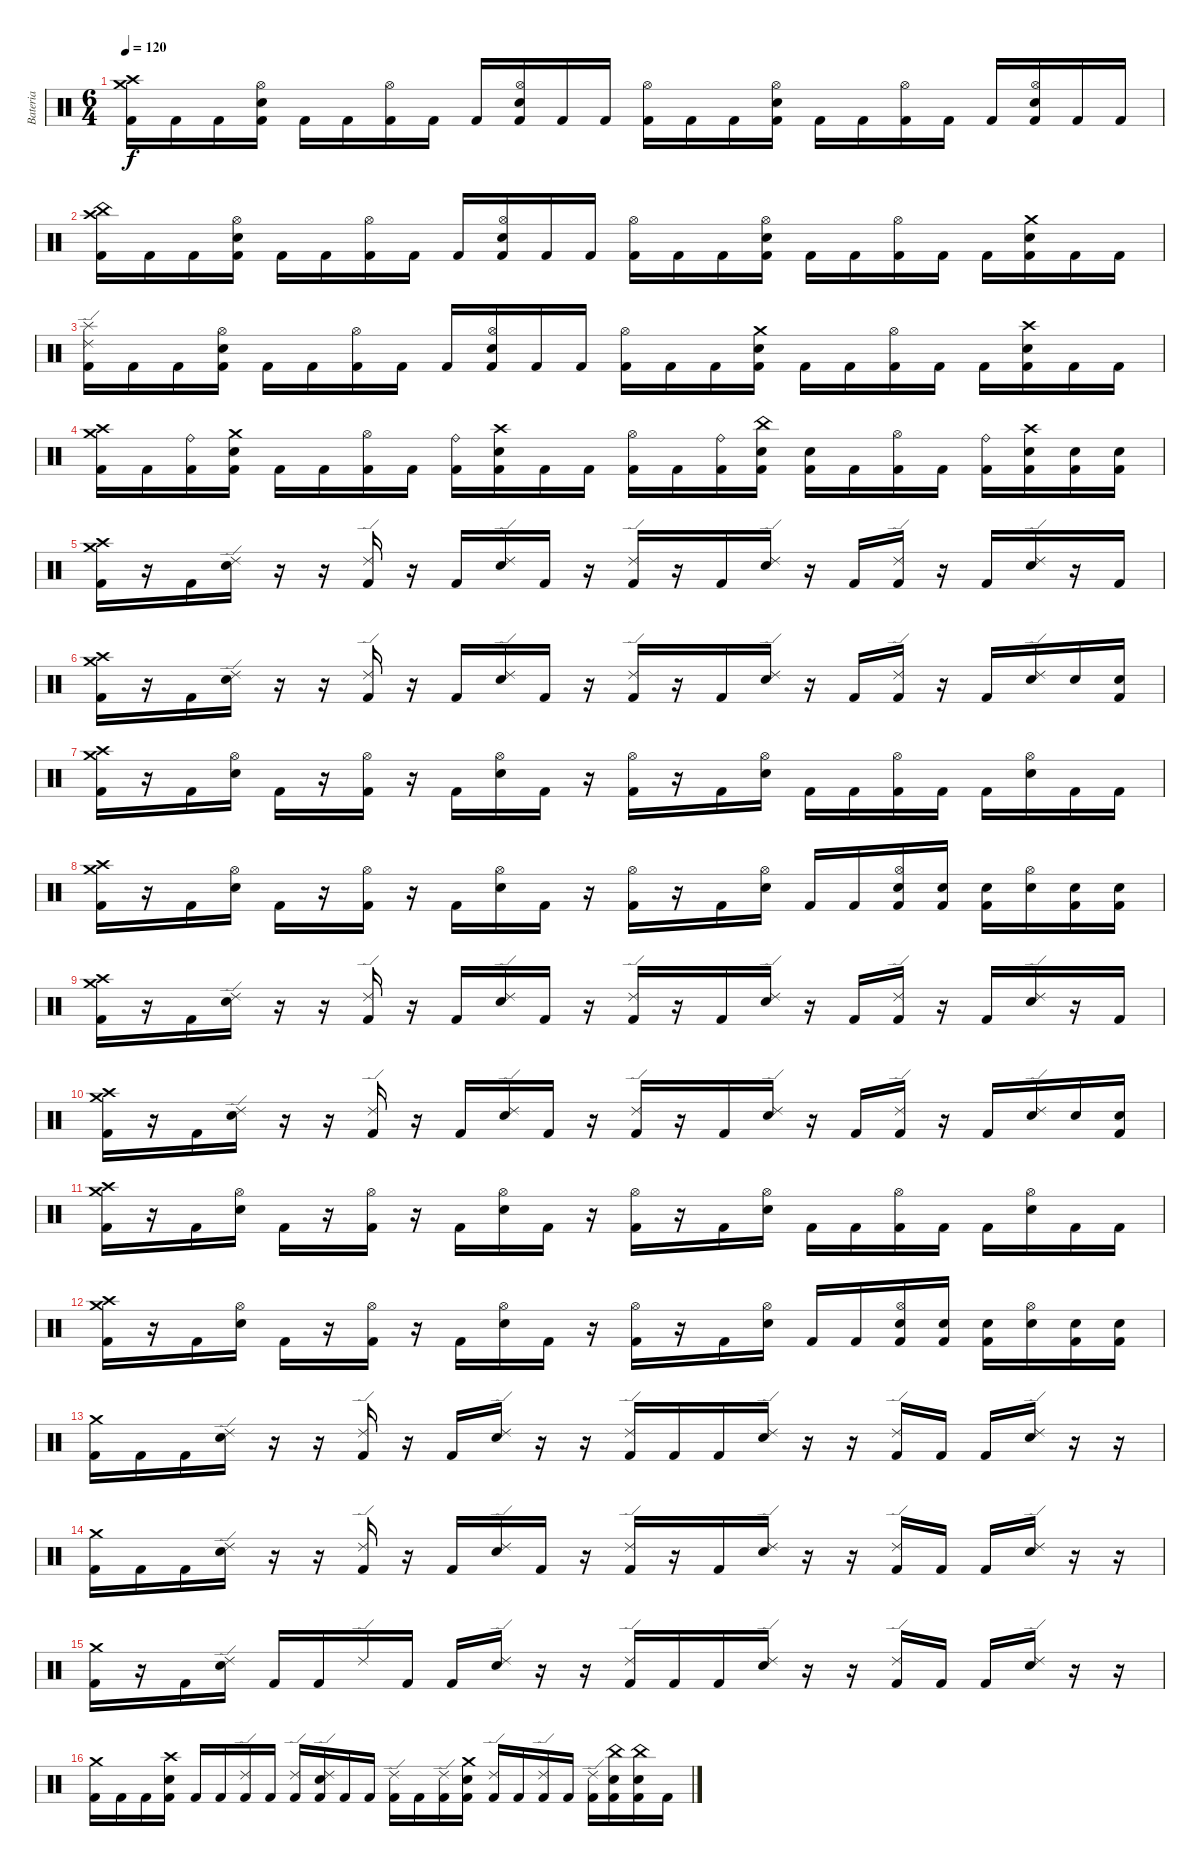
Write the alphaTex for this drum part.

\track ("Bateria" "Bateria") {instrument percussion}
\staff {score}
\articulation defaults
\ts (6 4)
\tempo 120
\clef neutral
\ks c
("Crash medium (hit)" "Crash high (hit)" "Kick (hit) 2").16{dy f} "Kick (hit) 2".16 "Kick (hit) 2".16 ("Hi-Hat (open)" "Electric Snare (hit)" "Kick (hit) 2").16 "Kick (hit) 2".16 "Kick (hit) 2".16 ("Hi-Hat (open)" "Kick (hit) 2").16 "Kick (hit) 2".16 "Kick (hit) 2".16 ("Hi-Hat (open)" "Electric Snare (hit)" "Kick (hit) 2").16 "Kick (hit) 2".16 "Kick (hit) 2".16 ("Hi-Hat (open)" "Kick (hit) 2").16 "Kick (hit) 2".16 "Kick (hit) 2".16 ("Hi-Hat (open)" "Electric Snare (hit)" "Kick (hit) 2").16 "Kick (hit) 2".16 "Kick (hit) 2".16 ("Hi-Hat (open)" "Kick (hit) 2").16 "Kick (hit) 2".16 "Kick (hit) 2".16 ("Hi-Hat (open)" "Electric Snare (hit)" "Kick (hit) 2").16 "Kick (hit) 2".16 "Kick (hit) 2".16 |
("China (hit)" "Crash high (hit)" "Kick (hit) 2").16 "Kick (hit) 2".16 "Kick (hit) 2".16 ("Hi-Hat (open)" "Electric Snare (hit)" "Kick (hit) 2").16 "Kick (hit) 2".16 "Kick (hit) 2".16 ("Hi-Hat (open)" "Kick (hit) 2").16 "Kick (hit) 2".16 "Kick (hit) 2".16 ("Hi-Hat (open)" "Electric Snare (hit)" "Kick (hit) 2").16 "Kick (hit) 2".16 "Kick (hit) 2".16 ("Hi-Hat (open)" "Kick (hit) 2").16 "Kick (hit) 2".16 "Kick (hit) 2".16 ("Hi-Hat (open)" "Electric Snare (hit)" "Kick (hit) 2").16 "Kick (hit) 2".16 "Kick (hit) 2".16 ("Hi-Hat (open)" "Kick (hit) 2").16 "Kick (hit) 2".16 "Kick (hit) 2".16 ("Crash medium (hit)" "Electric Snare (hit)" "Kick (hit) 2").16 "Kick (hit) 2".16 "Kick (hit) 2".16 |
("Ride (edge) 2" "Splash (hit)" "Kick (hit) 2").16 "Kick (hit) 2".16 "Kick (hit) 2".16 ("Hi-Hat (open)" "Electric Snare (hit)" "Kick (hit) 2").16 "Kick (hit) 2".16 "Kick (hit) 2".16 ("Hi-Hat (open)" "Kick (hit) 2").16 "Kick (hit) 2".16 "Kick (hit) 2".16 ("Hi-Hat (open)" "Electric Snare (hit)" "Kick (hit) 2").16 "Kick (hit) 2".16 "Kick (hit) 2".16 ("Hi-Hat (open)" "Kick (hit) 2").16 "Kick (hit) 2".16 "Kick (hit) 2".16 ("Crash medium (hit)" "Electric Snare (hit)" "Kick (hit) 2").16 "Kick (hit) 2".16 "Kick (hit) 2".16 ("Hi-Hat (open)" "Kick (hit) 2").16 "Kick (hit) 2".16 "Kick (hit) 2".16 ("Crash high (hit)" "Electric Snare (hit)" "Kick (hit) 2").16 "Kick (hit) 2".16 "Kick (hit) 2".16 |
("Crash medium (hit)" "Crash high (hit)" "Kick (hit) 2").16 "Kick (hit) 2".16 ("Ride (bell)" "Kick (hit) 2").16 ("Crash medium (hit)" "Electric Snare (hit)" "Kick (hit) 2").16 "Kick (hit) 2".16 "Kick (hit) 2".16 ("Hi-Hat (open)" "Kick (hit) 2").16 "Kick (hit) 2".16 ("Ride (bell)" "Kick (hit) 2").16 ("Crash high (hit)" "Electric Snare (hit)" "Kick (hit) 2").16 "Kick (hit) 2".16 "Kick (hit) 2".16 ("Hi-Hat (open)" "Kick (hit) 2").16 "Kick (hit) 2".16 ("Ride (bell)" "Kick (hit) 2").16 ("China (hit)" "Electric Snare (hit)" "Kick (hit) 2").16 ("Electric Snare (hit)" "Kick (hit) 2").16 "Kick (hit) 2".16 ("Hi-Hat (open)" "Kick (hit) 2").16 "Kick (hit) 2".16 ("Ride (bell)" "Kick (hit) 2").16 ("Crash high (hit)" "Electric Snare (hit)" "Kick (hit) 2").16 ("Electric Snare (hit)" "Kick (hit) 2").16 ("Electric Snare (hit)" "Kick (hit) 2").16 |
("Crash medium (hit)" "Crash high (hit)" "Kick (hit) 2").16 r.16 "Kick (hit) 2".16 ("Ride (edge) 2" "Electric Snare (hit)").16 r.16 r.16 ("Ride (edge) 2" "Kick (hit) 2").16 r.16 "Kick (hit) 2".16 ("Ride (edge) 2" "Electric Snare (hit)").16 "Kick (hit) 2".16 r.16 ("Ride (edge) 2" "Kick (hit) 2").16 r.16 "Kick (hit) 2".16 ("Ride (edge) 2" "Electric Snare (hit)").16 r.16 "Kick (hit) 2".16 ("Ride (edge) 2" "Kick (hit) 2").16 r.16 "Kick (hit) 2".16 ("Ride (edge) 2" "Electric Snare (hit)").16 r.16 "Kick (hit) 2".16 |
("Crash medium (hit)" "Crash high (hit)" "Kick (hit) 2").16 r.16 "Kick (hit) 2".16 ("Ride (edge) 2" "Electric Snare (hit)").16 r.16 r.16 ("Ride (edge) 2" "Kick (hit) 2").16 r.16 "Kick (hit) 2".16 ("Ride (edge) 2" "Electric Snare (hit)").16 "Kick (hit) 2".16 r.16 ("Ride (edge) 2" "Kick (hit) 2").16 r.16 "Kick (hit) 2".16 ("Ride (edge) 2" "Electric Snare (hit)").16 r.16 "Kick (hit) 2".16 ("Ride (edge) 2" "Kick (hit) 2").16 r.16 "Kick (hit) 2".16 ("Ride (edge) 2" "Electric Snare (hit)").16 "Electric Snare (hit)".16 ("Electric Snare (hit)" "Kick (hit) 2").16 |
("Crash medium (hit)" "Crash high (hit)" "Kick (hit) 2").16 r.16 "Kick (hit) 2".16 ("Hi-Hat (open)" "Electric Snare (hit)").16 "Kick (hit) 2".16 r.16 ("Hi-Hat (open)" "Kick (hit) 2").16 r.16 "Kick (hit) 2".16 ("Hi-Hat (open)" "Electric Snare (hit)").16 "Kick (hit) 2".16 r.16 ("Hi-Hat (open)" "Kick (hit) 2").16 r.16 "Kick (hit) 2".16 ("Hi-Hat (open)" "Electric Snare (hit)").16 "Kick (hit) 2".16 "Kick (hit) 2".16 ("Hi-Hat (open)" "Kick (hit) 2").16 "Kick (hit) 2".16 "Kick (hit) 2".16 ("Hi-Hat (open)" "Electric Snare (hit)").16 "Kick (hit) 2".16 "Kick (hit) 2".16 |
("Crash medium (hit)" "Crash high (hit)" "Kick (hit) 2").16 r.16 "Kick (hit) 2".16 ("Hi-Hat (open)" "Electric Snare (hit)").16 "Kick (hit) 2".16 r.16 ("Hi-Hat (open)" "Kick (hit) 2").16 r.16 "Kick (hit) 2".16 ("Hi-Hat (open)" "Electric Snare (hit)").16 "Kick (hit) 2".16 r.16 ("Hi-Hat (open)" "Kick (hit) 2").16 r.16 "Kick (hit) 2".16 ("Hi-Hat (open)" "Electric Snare (hit)").16 "Kick (hit) 2".16 "Kick (hit) 2".16 ("Hi-Hat (open)" "Electric Snare (hit)" "Kick (hit) 2").16 ("Electric Snare (hit)" "Kick (hit) 2").16 ("Electric Snare (hit)" "Kick (hit) 2").16 ("Hi-Hat (open)" "Electric Snare (hit)").16 ("Electric Snare (hit)" "Kick (hit) 2").16 ("Electric Snare (hit)" "Kick (hit) 2").16 |
("Crash medium (hit)" "Crash high (hit)" "Kick (hit) 2").16 r.16 "Kick (hit) 2".16 ("Ride (edge) 2" "Electric Snare (hit)").16 r.16 r.16 ("Ride (edge) 2" "Kick (hit) 2").16 r.16 "Kick (hit) 2".16 ("Ride (edge) 2" "Electric Snare (hit)").16 "Kick (hit) 2".16 r.16 ("Ride (edge) 2" "Kick (hit) 2").16 r.16 "Kick (hit) 2".16 ("Ride (edge) 2" "Electric Snare (hit)").16 r.16 "Kick (hit) 2".16 ("Ride (edge) 2" "Kick (hit) 2").16 r.16 "Kick (hit) 2".16 ("Ride (edge) 2" "Electric Snare (hit)").16 r.16 "Kick (hit) 2".16 |
("Crash medium (hit)" "Crash high (hit)" "Kick (hit) 2").16 r.16 "Kick (hit) 2".16 ("Ride (edge) 2" "Electric Snare (hit)").16 r.16 r.16 ("Ride (edge) 2" "Kick (hit) 2").16 r.16 "Kick (hit) 2".16 ("Ride (edge) 2" "Electric Snare (hit)").16 "Kick (hit) 2".16 r.16 ("Ride (edge) 2" "Kick (hit) 2").16 r.16 "Kick (hit) 2".16 ("Ride (edge) 2" "Electric Snare (hit)").16 r.16 "Kick (hit) 2".16 ("Ride (edge) 2" "Kick (hit) 2").16 r.16 "Kick (hit) 2".16 ("Ride (edge) 2" "Electric Snare (hit)").16 "Electric Snare (hit)".16 ("Electric Snare (hit)" "Kick (hit) 2").16 |
("Crash medium (hit)" "Crash high (hit)" "Kick (hit) 2").16 r.16 "Kick (hit) 2".16 ("Hi-Hat (open)" "Electric Snare (hit)").16 "Kick (hit) 2".16 r.16 ("Hi-Hat (open)" "Kick (hit) 2").16 r.16 "Kick (hit) 2".16 ("Hi-Hat (open)" "Electric Snare (hit)").16 "Kick (hit) 2".16 r.16 ("Hi-Hat (open)" "Kick (hit) 2").16 r.16 "Kick (hit) 2".16 ("Hi-Hat (open)" "Electric Snare (hit)").16 "Kick (hit) 2".16 "Kick (hit) 2".16 ("Hi-Hat (open)" "Kick (hit) 2").16 "Kick (hit) 2".16 "Kick (hit) 2".16 ("Hi-Hat (open)" "Electric Snare (hit)").16 "Kick (hit) 2".16 "Kick (hit) 2".16 |
("Crash medium (hit)" "Crash high (hit)" "Kick (hit) 2").16 r.16 "Kick (hit) 2".16 ("Hi-Hat (open)" "Electric Snare (hit)").16 "Kick (hit) 2".16 r.16 ("Hi-Hat (open)" "Kick (hit) 2").16 r.16 "Kick (hit) 2".16 ("Hi-Hat (open)" "Electric Snare (hit)").16 "Kick (hit) 2".16 r.16 ("Hi-Hat (open)" "Kick (hit) 2").16 r.16 "Kick (hit) 2".16 ("Hi-Hat (open)" "Electric Snare (hit)").16 "Kick (hit) 2".16 "Kick (hit) 2".16 ("Hi-Hat (open)" "Electric Snare (hit)" "Kick (hit) 2").16 ("Electric Snare (hit)" "Kick (hit) 2").16 ("Electric Snare (hit)" "Kick (hit) 2").16 ("Hi-Hat (open)" "Electric Snare (hit)").16 ("Electric Snare (hit)" "Kick (hit) 2").16 ("Electric Snare (hit)" "Kick (hit) 2").16 |
("Crash medium (hit)" "Kick (hit) 2").16 "Kick (hit) 2".16 "Kick (hit) 2".16 ("Ride (edge) 2" "Electric Snare (hit)").16 r.16 r.16 ("Ride (edge) 2" "Kick (hit) 2").16 r.16 "Kick (hit) 2".16 ("Ride (edge) 2" "Electric Snare (hit)").16 r.16 r.16 ("Ride (edge) 2" "Kick (hit) 2").16 "Kick (hit) 2".16 "Kick (hit) 2".16 ("Ride (edge) 2" "Electric Snare (hit)").16 r.16 r.16 ("Ride (edge) 2" "Kick (hit) 2").16 "Kick (hit) 2".16 "Kick (hit) 2".16 ("Ride (edge) 2" "Electric Snare (hit)").16 r.16 r.16 |
("Crash medium (hit)" "Kick (hit) 2").16 "Kick (hit) 2".16 "Kick (hit) 2".16 ("Ride (edge) 2" "Electric Snare (hit)").16 r.16 r.16 ("Ride (edge) 2" "Kick (hit) 2").16 r.16 "Kick (hit) 2".16 ("Ride (edge) 2" "Electric Snare (hit)").16 "Kick (hit) 2".16 r.16 ("Ride (edge) 2" "Kick (hit) 2").16 r.16 "Kick (hit) 2".16 ("Ride (edge) 2" "Electric Snare (hit)").16 r.16 r.16 ("Ride (edge) 2" "Kick (hit) 2").16 "Kick (hit) 2".16 "Kick (hit) 2".16 ("Ride (edge) 2" "Electric Snare (hit)").16 r.16 r.16 |
("Crash medium (hit)" "Kick (hit) 2").16 r.16 "Kick (hit) 2".16 ("Ride (edge) 2" "Electric Snare (hit)").16 "Kick (hit) 2".16 "Kick (hit) 2".16 "Ride (edge) 2".16 "Kick (hit) 2".16 "Kick (hit) 2".16 ("Ride (edge) 2" "Electric Snare (hit)").16 r.16 r.16 ("Ride (edge) 2" "Kick (hit) 2").16 "Kick (hit) 2".16 "Kick (hit) 2".16 ("Ride (edge) 2" "Electric Snare (hit)").16 r.16 r.16 ("Ride (edge) 2" "Kick (hit) 2").16 "Kick (hit) 2".16 "Kick (hit) 2".16 ("Ride (edge) 2" "Electric Snare (hit)").16 r.16 r.16 |
("Crash medium (hit)" "Kick (hit) 2").16 "Kick (hit) 2".16 "Kick (hit) 2".16 ("Crash high (hit)" "Electric Snare (hit)" "Kick (hit) 2").16 "Kick (hit) 2".16 "Kick (hit) 2".16 ("Ride (edge) 2" "Kick (hit) 2").16 "Kick (hit) 2".16 ("Ride (edge) 2" "Kick (hit) 2").16 ("Ride (edge) 2" "Electric Snare (hit)" "Kick (hit) 2").16 "Kick (hit) 2".16 "Kick (hit) 2".16 ("Ride (edge) 2" "Kick (hit) 2").16 "Kick (hit) 2".16 ("Ride (edge) 2" "Kick (hit) 2").16 ("Crash medium (hit)" "Electric Snare (hit)" "Kick (hit) 2").16 ("Ride (edge) 2" "Kick (hit) 2").16 "Kick (hit) 2".16 ("Ride (edge) 2" "Kick (hit) 2").16 "Kick (hit) 2".16 ("Ride (edge) 2" "Kick (hit) 2").16 ("China (hit)" "Electric Snare (hit)" "Kick (hit) 2").16 ("China (hit)" "Electric Snare (hit)" "Kick (hit) 2").16 "Kick (hit) 2".16
